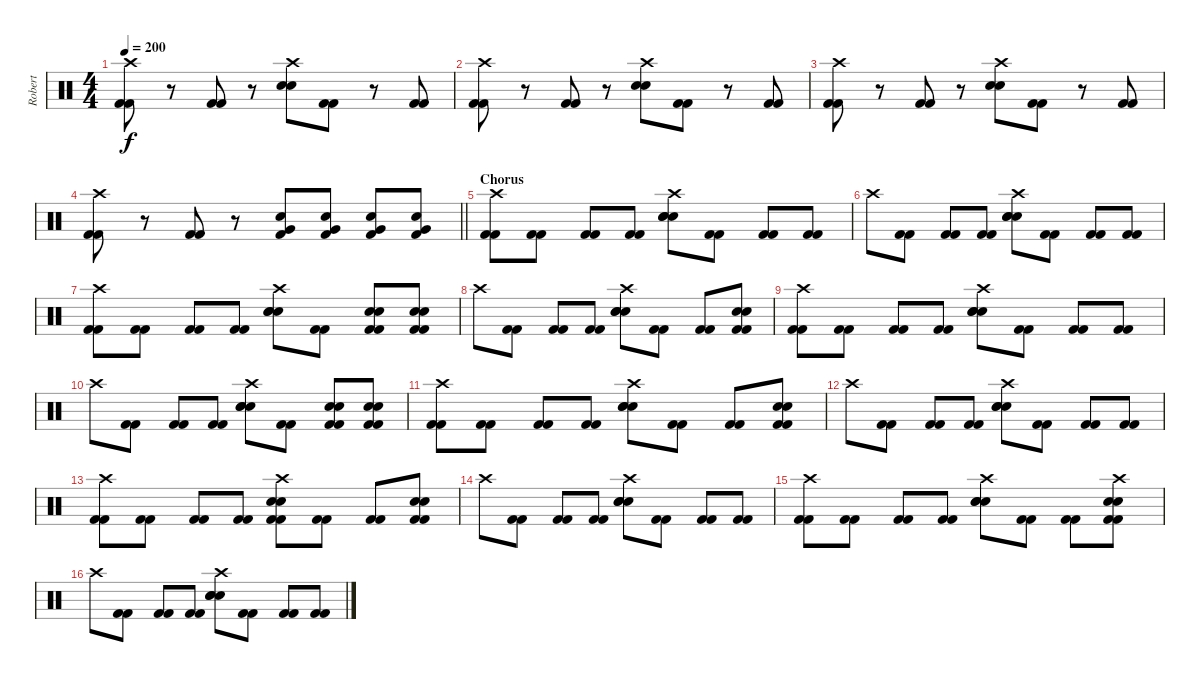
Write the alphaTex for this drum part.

\track ("Robert" "Robert") {instrument percussion}
\staff {score}
\articulation defaults
\ts (4 4)
\tempo 200
\clef neutral
\ks c
("Crash high (hit)" "Kick (hit) 2" "Kick (hit) 2").8{dy f} r.8 ("Kick (hit) 2" "Kick (hit) 2").8 r.8 ("Crash high (hit)" "Electric Snare (hit)" "Electric Snare (hit)").8 ("Kick (hit) 2" "Kick (hit) 2").8 r.8 ("Kick (hit) 2" "Kick (hit) 2").8 |
("Crash high (hit)" "Kick (hit) 2" "Kick (hit) 2").8 r.8 ("Kick (hit) 2" "Kick (hit) 2").8 r.8 ("Crash high (hit)" "Electric Snare (hit)" "Electric Snare (hit)").8 ("Kick (hit) 2" "Kick (hit) 2").8 r.8 ("Kick (hit) 2" "Kick (hit) 2").8 |
("Crash high (hit)" "Kick (hit) 2" "Kick (hit) 2").8 r.8 ("Kick (hit) 2" "Kick (hit) 2").8 r.8 ("Crash high (hit)" "Electric Snare (hit)" "Electric Snare (hit)").8 ("Kick (hit) 2" "Kick (hit) 2").8 r.8 ("Kick (hit) 2" "Kick (hit) 2").8 |
\barLineRight lightlight
("Crash high (hit)" "Kick (hit) 2" "Kick (hit) 2").8 r.8 ("Kick (hit) 2" "Kick (hit) 2").8 r.8 ("Electric Snare (hit)" "Very Low Tom (hit)" "Kick (hit) 2").8 ("Electric Snare (hit)" "Very Low Tom (hit)" "Kick (hit) 2").8 ("Electric Snare (hit)" "Very Low Tom (hit)" "Kick (hit) 2").8 ("Electric Snare (hit)" "Very Low Tom (hit)" "Kick (hit) 2").8 |
\section ("" "Chorus")
("Crash high (hit)" "Kick (hit) 2" "Kick (hit) 2").8 ("Kick (hit) 2" "Kick (hit) 2").8 ("Kick (hit) 2" "Kick (hit) 2").8 ("Kick (hit) 2" "Kick (hit) 2").8 ("Crash high (hit)" "Electric Snare (hit)" "Electric Snare (hit)" "Electric Snare (hit)").8 ("Kick (hit) 2" "Kick (hit) 2").8 ("Kick (hit) 2" "Kick (hit) 2").8 ("Kick (hit) 2" "Kick (hit) 2").8 |
"Crash high (hit)".8 ("Kick (hit) 2" "Kick (hit) 2").8 ("Kick (hit) 2" "Kick (hit) 2").8 ("Kick (hit) 2" "Kick (hit) 2").8 ("Crash high (hit)" "Electric Snare (hit)" "Electric Snare (hit)" "Electric Snare (hit)").8 ("Kick (hit) 2" "Kick (hit) 2").8 ("Kick (hit) 2" "Kick (hit) 2").8 ("Kick (hit) 2" "Kick (hit) 2").8 |
("Crash high (hit)" "Kick (hit) 2" "Kick (hit) 2").8 ("Kick (hit) 2" "Kick (hit) 2").8 ("Kick (hit) 2" "Kick (hit) 2").8 ("Kick (hit) 2" "Kick (hit) 2").8 ("Crash high (hit)" "Electric Snare (hit)" "Electric Snare (hit)" "Electric Snare (hit)").8 ("Kick (hit) 2" "Kick (hit) 2").8 ("Electric Snare (hit)" "Electric Snare (hit)" "Kick (hit) 2" "Kick (hit) 2").8 ("Electric Snare (hit)" "Electric Snare (hit)" "Kick (hit) 2" "Kick (hit) 2").8 |
"Crash high (hit)".8 ("Kick (hit) 2" "Kick (hit) 2").8 ("Kick (hit) 2" "Kick (hit) 2").8 ("Kick (hit) 2" "Kick (hit) 2").8 ("Crash high (hit)" "Electric Snare (hit)" "Electric Snare (hit)" "Electric Snare (hit)").8 ("Kick (hit) 2" "Kick (hit) 2").8 ("Kick (hit) 2" "Kick (hit) 2").8 ("Electric Snare (hit)" "Electric Snare (hit)" "Kick (hit) 2" "Kick (hit) 2").8 |
("Crash high (hit)" "Kick (hit) 2" "Kick (hit) 2").8 ("Kick (hit) 2" "Kick (hit) 2").8 ("Kick (hit) 2" "Kick (hit) 2").8 ("Kick (hit) 2" "Kick (hit) 2").8 ("Crash high (hit)" "Electric Snare (hit)" "Electric Snare (hit)" "Electric Snare (hit)").8 ("Kick (hit) 2" "Kick (hit) 2").8 ("Kick (hit) 2" "Kick (hit) 2").8 ("Kick (hit) 2" "Kick (hit) 2").8 |
"Crash high (hit)".8 ("Kick (hit) 2" "Kick (hit) 2").8 ("Kick (hit) 2" "Kick (hit) 2").8 ("Kick (hit) 2" "Kick (hit) 2").8 ("Crash high (hit)" "Electric Snare (hit)" "Electric Snare (hit)" "Electric Snare (hit)").8 ("Kick (hit) 2" "Kick (hit) 2").8 ("Electric Snare (hit)" "Electric Snare (hit)" "Kick (hit) 2" "Kick (hit) 2").8 ("Electric Snare (hit)" "Electric Snare (hit)" "Kick (hit) 2" "Kick (hit) 2").8 |
("Crash high (hit)" "Kick (hit) 2" "Kick (hit) 2").8 ("Kick (hit) 2" "Kick (hit) 2").8 ("Kick (hit) 2" "Kick (hit) 2").8 ("Kick (hit) 2" "Kick (hit) 2").8 ("Crash high (hit)" "Electric Snare (hit)" "Electric Snare (hit)" "Electric Snare (hit)").8 ("Kick (hit) 2" "Kick (hit) 2").8 ("Kick (hit) 2" "Kick (hit) 2").8 ("Electric Snare (hit)" "Electric Snare (hit)" "Kick (hit) 2" "Kick (hit) 2").8 |
"Crash high (hit)".8 ("Kick (hit) 2" "Kick (hit) 2").8 ("Kick (hit) 2" "Kick (hit) 2").8 ("Kick (hit) 2" "Kick (hit) 2").8 ("Crash high (hit)" "Electric Snare (hit)" "Electric Snare (hit)" "Electric Snare (hit)").8 ("Kick (hit) 2" "Kick (hit) 2").8 ("Kick (hit) 2" "Kick (hit) 2").8 ("Kick (hit) 2" "Kick (hit) 2").8 |
("Crash high (hit)" "Kick (hit) 2" "Kick (hit) 2").8 ("Kick (hit) 2" "Kick (hit) 2").8 ("Kick (hit) 2" "Kick (hit) 2").8 ("Kick (hit) 2" "Kick (hit) 2").8 ("Crash high (hit)" "Electric Snare (hit)" "Electric Snare (hit)" "Kick (hit) 2" "Kick (hit) 2").8 ("Kick (hit) 2" "Kick (hit) 2").8 ("Kick (hit) 2" "Kick (hit) 2").8 ("Electric Snare (hit)" "Electric Snare (hit)" "Kick (hit) 2" "Kick (hit) 2").8 |
"Crash high (hit)".8 ("Kick (hit) 2" "Kick (hit) 2").8 ("Kick (hit) 2" "Kick (hit) 2").8 ("Kick (hit) 2" "Kick (hit) 2").8 ("Crash high (hit)" "Electric Snare (hit)" "Electric Snare (hit)" "Electric Snare (hit)").8 ("Kick (hit) 2" "Kick (hit) 2").8 ("Kick (hit) 2" "Kick (hit) 2").8 ("Kick (hit) 2" "Kick (hit) 2").8 |
("Crash high (hit)" "Kick (hit) 2" "Kick (hit) 2").8 ("Kick (hit) 2" "Kick (hit) 2").8 ("Kick (hit) 2" "Kick (hit) 2").8 ("Kick (hit) 2" "Kick (hit) 2").8 ("Crash high (hit)" "Electric Snare (hit)" "Electric Snare (hit)" "Electric Snare (hit)").8 ("Kick (hit) 2" "Kick (hit) 2").8 ("Kick (hit) 2" "Kick (hit) 2").8 ("Crash high (hit)" "Electric Snare (hit)" "Electric Snare (hit)" "Kick (hit) 2" "Kick (hit) 2").8 |
"Crash high (hit)".8 ("Kick (hit) 2" "Kick (hit) 2").8 ("Kick (hit) 2" "Kick (hit) 2").8 ("Kick (hit) 2" "Kick (hit) 2").8 ("Crash high (hit)" "Electric Snare (hit)" "Electric Snare (hit)" "Electric Snare (hit)").8 ("Kick (hit) 2" "Kick (hit) 2").8 ("Kick (hit) 2" "Kick (hit) 2").8 ("Kick (hit) 2" "Kick (hit) 2").8
